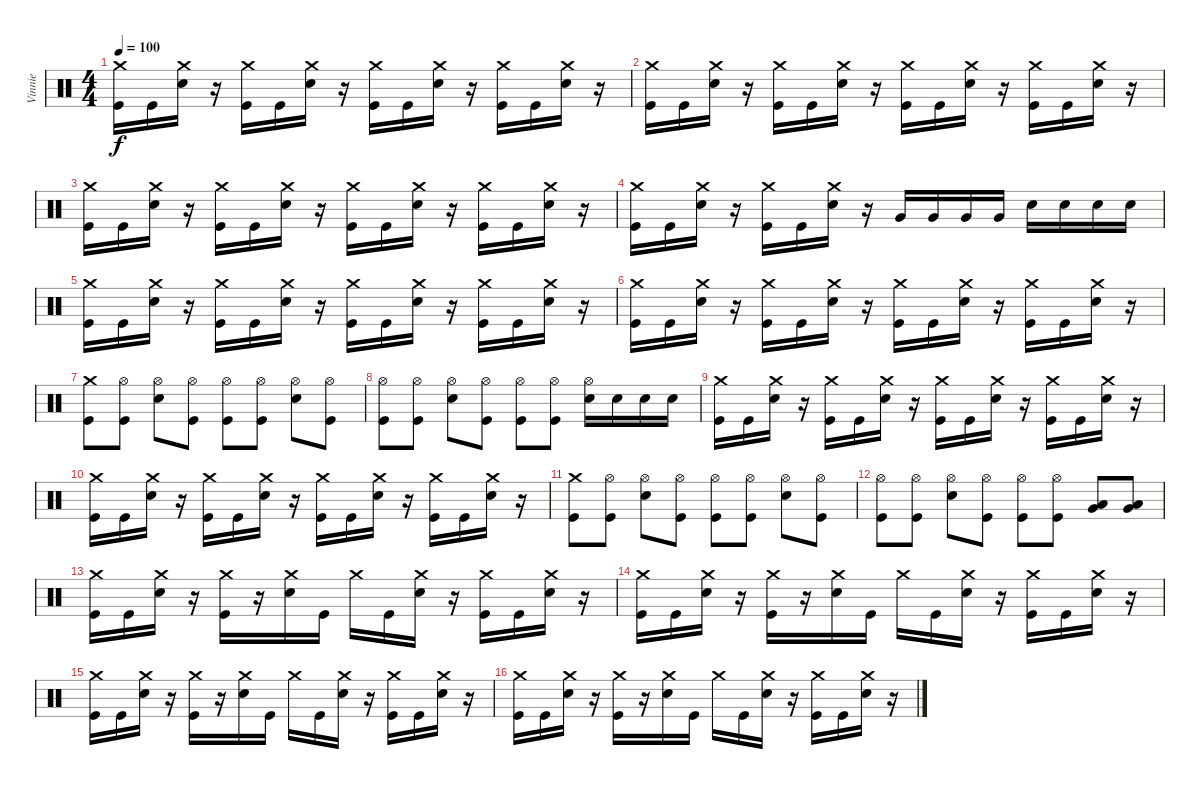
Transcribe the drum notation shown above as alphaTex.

\track ("Vinnie" "Vinnie") {instrument percussion}
\staff {score}
\articulation defaults
\ts (4 4)
\tempo 100
\clef neutral
\ks c
("Crash medium (hit)" "Kick (hit)").16{dy f} "Kick (hit)".16 ("Crash medium (hit)" "Electric Snare (hit)").16 r.16 ("Crash medium (hit)" "Kick (hit)").16 "Kick (hit)".16 ("Crash medium (hit)" "Electric Snare (hit)").16 r.16 ("Crash medium (hit)" "Kick (hit)").16 "Kick (hit)".16 ("Crash medium (hit)" "Electric Snare (hit)").16 r.16 ("Crash medium (hit)" "Kick (hit)").16 "Kick (hit)".16 ("Crash medium (hit)" "Electric Snare (hit)").16 r.16 |
("Crash medium (hit)" "Kick (hit)").16 "Kick (hit)".16 ("Crash medium (hit)" "Electric Snare (hit)").16 r.16 ("Crash medium (hit)" "Kick (hit)").16 "Kick (hit)".16 ("Crash medium (hit)" "Electric Snare (hit)").16 r.16 ("Crash medium (hit)" "Kick (hit)").16 "Kick (hit)".16 ("Crash medium (hit)" "Electric Snare (hit)").16 r.16 ("Crash medium (hit)" "Kick (hit)").16 "Kick (hit)".16 ("Crash medium (hit)" "Electric Snare (hit)").16 r.16 |
("Crash medium (hit)" "Kick (hit)").16 "Kick (hit)".16 ("Crash medium (hit)" "Electric Snare (hit)").16 r.16 ("Crash medium (hit)" "Kick (hit)").16 "Kick (hit)".16 ("Crash medium (hit)" "Electric Snare (hit)").16 r.16 ("Crash medium (hit)" "Kick (hit)").16 "Kick (hit)".16 ("Crash medium (hit)" "Electric Snare (hit)").16 r.16 ("Crash medium (hit)" "Kick (hit)").16 "Kick (hit)".16 ("Crash medium (hit)" "Electric Snare (hit)").16 r.16 |
("Crash medium (hit)" "Kick (hit)").16 "Kick (hit)".16 ("Crash medium (hit)" "Electric Snare (hit)").16 r.16 ("Crash medium (hit)" "Kick (hit)").16 "Kick (hit)".16 ("Crash medium (hit)" "Electric Snare (hit)").16 r.16 "Very Low Tom (hit)".16 "Very Low Tom (hit)".16 "Very Low Tom (hit)".16 "Very Low Tom (hit)".16 "Electric Snare (hit)".16 "Electric Snare (hit)".16 "Electric Snare (hit)".16 "Electric Snare (hit)".16 |
("Crash medium (hit)" "Kick (hit)").16 "Kick (hit)".16 ("Crash medium (hit)" "Electric Snare (hit)").16 r.16 ("Crash medium (hit)" "Kick (hit)").16 "Kick (hit)".16 ("Crash medium (hit)" "Electric Snare (hit)").16 r.16 ("Crash medium (hit)" "Kick (hit)").16 "Kick (hit)".16 ("Crash medium (hit)" "Electric Snare (hit)").16 r.16 ("Crash medium (hit)" "Kick (hit)").16 "Kick (hit)".16 ("Crash medium (hit)" "Electric Snare (hit)").16 r.16 |
("Crash medium (hit)" "Kick (hit)").16 "Kick (hit)".16 ("Crash medium (hit)" "Electric Snare (hit)").16 r.16 ("Crash medium (hit)" "Kick (hit)").16 "Kick (hit)".16 ("Crash medium (hit)" "Electric Snare (hit)").16 r.16 ("Crash medium (hit)" "Kick (hit)").16 "Kick (hit)".16 ("Crash medium (hit)" "Electric Snare (hit)").16 r.16 ("Crash medium (hit)" "Kick (hit)").16 "Kick (hit)".16 ("Crash medium (hit)" "Electric Snare (hit)").16 r.16 |
("Crash medium (hit)" "Kick (hit)").8 ("Hi-Hat (open)" "Kick (hit)").8 ("Hi-Hat (open)" "Electric Snare (hit)").8 ("Hi-Hat (open)" "Kick (hit)").8 ("Hi-Hat (open)" "Kick (hit)").8 ("Hi-Hat (open)" "Kick (hit)").8 ("Hi-Hat (open)" "Electric Snare (hit)").8 ("Hi-Hat (open)" "Kick (hit)").8 |
("Hi-Hat (open)" "Kick (hit)").8 ("Hi-Hat (open)" "Kick (hit)").8 ("Hi-Hat (open)" "Electric Snare (hit)").8 ("Hi-Hat (open)" "Kick (hit)").8 ("Hi-Hat (open)" "Kick (hit)").8 ("Hi-Hat (open)" "Kick (hit)").8 ("Hi-Hat (open)" "Electric Snare (hit)").16 "Electric Snare (hit)".16 "Electric Snare (hit)".16 "Electric Snare (hit)".16 |
("Crash medium (hit)" "Kick (hit)").16 "Kick (hit)".16 ("Crash medium (hit)" "Electric Snare (hit)").16 r.16 ("Crash medium (hit)" "Kick (hit)").16 "Kick (hit)".16 ("Crash medium (hit)" "Electric Snare (hit)").16 r.16 ("Crash medium (hit)" "Kick (hit)").16 "Kick (hit)".16 ("Crash medium (hit)" "Electric Snare (hit)").16 r.16 ("Crash medium (hit)" "Kick (hit)").16 "Kick (hit)".16 ("Crash medium (hit)" "Electric Snare (hit)").16 r.16 |
("Crash medium (hit)" "Kick (hit)").16 "Kick (hit)".16 ("Crash medium (hit)" "Electric Snare (hit)").16 r.16 ("Crash medium (hit)" "Kick (hit)").16 "Kick (hit)".16 ("Crash medium (hit)" "Electric Snare (hit)").16 r.16 ("Crash medium (hit)" "Kick (hit)").16 "Kick (hit)".16 ("Crash medium (hit)" "Electric Snare (hit)").16 r.16 ("Crash medium (hit)" "Kick (hit)").16 "Kick (hit)".16 ("Crash medium (hit)" "Electric Snare (hit)").16 r.16 |
("Crash medium (hit)" "Kick (hit)").8 ("Hi-Hat (open)" "Kick (hit)").8 ("Hi-Hat (open)" "Electric Snare (hit)").8 ("Hi-Hat (open)" "Kick (hit)").8 ("Hi-Hat (open)" "Kick (hit)").8 ("Hi-Hat (open)" "Kick (hit)").8 ("Hi-Hat (open)" "Electric Snare (hit)").8 ("Hi-Hat (open)" "Kick (hit)").8 |
("Hi-Hat (open)" "Kick (hit)").8 ("Hi-Hat (open)" "Kick (hit)").8 ("Hi-Hat (open)" "Electric Snare (hit)").8 ("Hi-Hat (open)" "Kick (hit)").8 ("Hi-Hat (open)" "Kick (hit)").8 ("Hi-Hat (open)" "Kick (hit)").8 ("Low Tom (hit)" "Very Low Tom (hit)").8 ("Low Tom (hit)" "Very Low Tom (hit)").8 |
("Crash medium (hit)" "Kick (hit)").16 "Kick (hit)".16 ("Crash medium (hit)" "Electric Snare (hit)").16 r.16 ("Crash medium (hit)" "Kick (hit)").16 r.16 ("Crash medium (hit)" "Electric Snare (hit)").16 "Kick (hit)".16 "Crash medium (hit)".16 "Kick (hit)".16 ("Crash medium (hit)" "Electric Snare (hit)").16 r.16 ("Crash medium (hit)" "Kick (hit)").16 "Kick (hit)".16 ("Crash medium (hit)" "Electric Snare (hit)").16 r.16 |
("Crash medium (hit)" "Kick (hit)").16 "Kick (hit)".16 ("Crash medium (hit)" "Electric Snare (hit)").16 r.16 ("Crash medium (hit)" "Kick (hit)").16 r.16 ("Crash medium (hit)" "Electric Snare (hit)").16 "Kick (hit)".16 "Crash medium (hit)".16 "Kick (hit)".16 ("Crash medium (hit)" "Electric Snare (hit)").16 r.16 ("Crash medium (hit)" "Kick (hit)").16 "Kick (hit)".16 ("Crash medium (hit)" "Electric Snare (hit)").16 r.16 |
("Crash medium (hit)" "Kick (hit)").16 "Kick (hit)".16 ("Crash medium (hit)" "Electric Snare (hit)").16 r.16 ("Crash medium (hit)" "Kick (hit)").16 r.16 ("Crash medium (hit)" "Electric Snare (hit)").16 "Kick (hit)".16 "Crash medium (hit)".16 "Kick (hit)".16 ("Crash medium (hit)" "Electric Snare (hit)").16 r.16 ("Crash medium (hit)" "Kick (hit)").16 "Kick (hit)".16 ("Crash medium (hit)" "Electric Snare (hit)").16 r.16 |
("Crash medium (hit)" "Kick (hit)").16 "Kick (hit)".16 ("Crash medium (hit)" "Electric Snare (hit)").16 r.16 ("Crash medium (hit)" "Kick (hit)").16 r.16 ("Crash medium (hit)" "Electric Snare (hit)").16 "Kick (hit)".16 "Crash medium (hit)".16 "Kick (hit)".16 ("Crash medium (hit)" "Electric Snare (hit)").16 r.16 ("Crash medium (hit)" "Kick (hit)").16 "Kick (hit)".16 ("Crash medium (hit)" "Electric Snare (hit)").16 r.16
